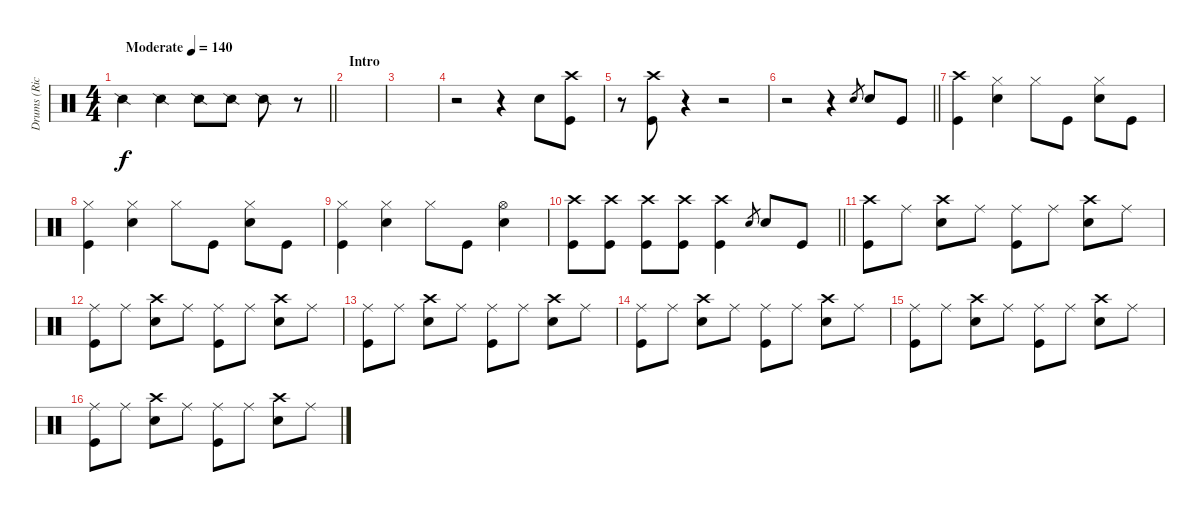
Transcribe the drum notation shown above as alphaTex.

\track ("Drums (Rick)" "Drums (Ric") {instrument percussion}
\staff {score}
\articulation defaults
\ts (4 4)
\tempo (140 "Moderate")
\clef neutral
\barLineRight lightlight
\ks aminor "Snare (side stick) 2".4{dy f} "Snare (side stick) 2".4 "Snare (side stick) 2".8 "Snare (side stick) 2".8 "Snare (side stick) 2".8
r.8 |
\section ("" "Intro")
|
|
r.2 r.4 "Snare (hit) 2".8 ("Crash high (hit)" "Kick (hit)").8 |
r.8 ("Crash high (hit)" "Kick (hit)").8 r.4 r.2 |
\barLineRight lightlight
r.2 r.4 "Snare (hit) 2".8{gr} "Snare (hit) 2".8 "Kick (hit)".8 |
("Crash high (hit)" "Kick (hit)").4 ("Hi-Hat (closed)" "Snare (hit) 2").4 "Hi-Hat (closed)".8 "Kick (hit)".8 ("Hi-Hat (closed)" "Snare (hit) 2").8 "Kick (hit)".8 |
("Hi-Hat (closed)" "Kick (hit)").4 ("Hi-Hat (closed)" "Snare (hit) 2").4 "Hi-Hat (closed)".8 "Kick (hit)".8 ("Hi-Hat (closed)" "Snare (hit) 2").8 "Kick (hit)".8 |
("Hi-Hat (closed)" "Kick (hit)").4 ("Hi-Hat (closed)" "Snare (hit) 2").4 "Hi-Hat (closed)".8 "Kick (hit)".8 ("Hi-Hat (open)" "Snare (hit) 2").4 |
\barLineRight lightlight
("Crash high (hit)" "Kick (hit)").8 ("Crash high (hit)" "Kick (hit)").8 ("Crash high (hit)" "Kick (hit)").8 ("Crash high (hit)" "Kick (hit)").8 ("Crash high (hit)" "Kick (hit)").4 "Snare (hit) 2".8{gr} "Snare (hit) 2".8 "Kick (hit)".8 |
("Crash high (hit)" "Kick (hit)").8 "Ride (middle)".8 ("Crash high (hit)" "Snare (hit) 2").8 "Ride (middle)".8 ("Ride (middle)" "Kick (hit)").8 "Ride (middle)".8 ("Crash high (hit)" "Snare (hit) 2").8 "Ride (middle)".8 |
("Ride (middle)" "Kick (hit)").8 "Ride (middle)".8 ("Crash high (hit)" "Snare (hit) 2").8 "Ride (middle)".8 ("Ride (middle)" "Kick (hit)").8 "Ride (middle)".8 ("Crash high (hit)" "Snare (hit) 2").8 "Ride (middle)".8 |
("Ride (middle)" "Kick (hit)").8 "Ride (middle)".8 ("Crash high (hit)" "Snare (hit) 2").8 "Ride (middle)".8 ("Ride (middle)" "Kick (hit)").8 "Ride (middle)".8 ("Crash high (hit)" "Snare (hit) 2").8 "Ride (middle)".8 |
("Ride (middle)" "Kick (hit)").8 "Ride (middle)".8 ("Crash high (hit)" "Snare (hit) 2").8 "Ride (middle)".8 ("Ride (middle)" "Kick (hit)").8 "Ride (middle)".8 ("Crash high (hit)" "Snare (hit) 2").8 "Ride (middle)".8 |
("Ride (middle)" "Kick (hit)").8 "Ride (middle)".8 ("Crash high (hit)" "Snare (hit) 2").8 "Ride (middle)".8 ("Ride (middle)" "Kick (hit)").8 "Ride (middle)".8 ("Crash high (hit)" "Snare (hit) 2").8 "Ride (middle)".8 |
("Ride (middle)" "Kick (hit)").8 "Ride (middle)".8 ("Crash high (hit)" "Snare (hit) 2").8 "Ride (middle)".8 ("Ride (middle)" "Kick (hit)").8 "Ride (middle)".8 ("Crash high (hit)" "Snare (hit) 2").8 "Ride (middle)".8
